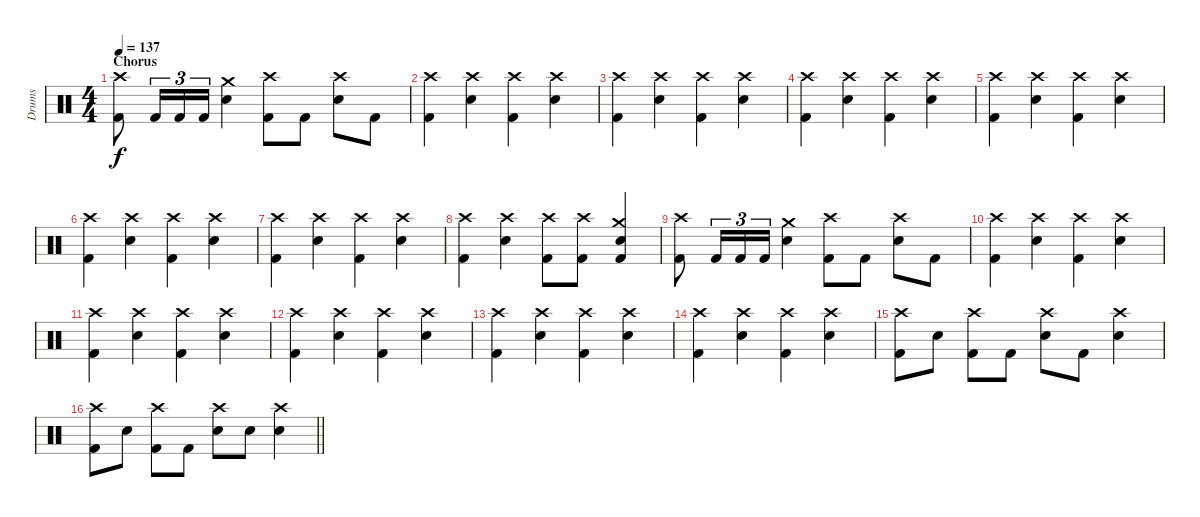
\track ("Drums" "Drums") {instrument percussion}
\staff {score}
\articulation defaults
\ts (4 4)
\section ("" "Chorus")
\tempo 137
\clef neutral
\ks c
("Crash high (hit)" "Kick (hit) 2").8{dy f} "Kick (hit) 2".16{tu (3 2)} "Kick (hit) 2".16{tu (3 2)} "Kick (hit) 2".16{tu (3 2)} ("Crash medium (hit)" "Electric Snare (hit)").4 ("Crash high (hit)" "Kick (hit) 2").8 "Kick (hit) 2".8 ("Crash high (hit)" "Electric Snare (hit)").8 "Kick (hit) 2".8 |
("Crash high (hit)" "Kick (hit) 2").4 ("Crash high (hit)" "Electric Snare (hit)").4 ("Crash high (hit)" "Kick (hit) 2").4 ("Crash high (hit)" "Electric Snare (hit)").4 |
("Crash high (hit)" "Kick (hit) 2").4 ("Crash high (hit)" "Electric Snare (hit)").4 ("Crash high (hit)" "Kick (hit) 2").4 ("Crash high (hit)" "Electric Snare (hit)").4 |
("Crash high (hit)" "Kick (hit) 2").4 ("Crash high (hit)" "Electric Snare (hit)").4 ("Crash high (hit)" "Kick (hit) 2").4 ("Crash high (hit)" "Electric Snare (hit)").4 |
("Crash high (hit)" "Kick (hit) 2").4 ("Crash high (hit)" "Electric Snare (hit)").4 ("Crash high (hit)" "Kick (hit) 2").4 ("Crash high (hit)" "Electric Snare (hit)").4 |
("Crash high (hit)" "Kick (hit) 2").4 ("Crash high (hit)" "Electric Snare (hit)").4 ("Crash high (hit)" "Kick (hit) 2").4 ("Crash high (hit)" "Electric Snare (hit)").4 |
("Crash high (hit)" "Kick (hit) 2").4 ("Crash high (hit)" "Electric Snare (hit)").4 ("Crash high (hit)" "Kick (hit) 2").4 ("Crash high (hit)" "Electric Snare (hit)").4 |
("Crash high (hit)" "Kick (hit) 2").4 ("Crash high (hit)" "Electric Snare (hit)").4 ("Crash high (hit)" "Kick (hit) 2").8 ("Crash high (hit)" "Kick (hit) 2").8 ("Crash medium (hit)" "Kick (hit) 2" "Electric Snare (hit)").4 |
("Crash high (hit)" "Kick (hit) 2").8 "Kick (hit) 2".16{tu (3 2)} "Kick (hit) 2".16{tu (3 2)} "Kick (hit) 2".16{tu (3 2)} ("Crash medium (hit)" "Electric Snare (hit)").4 ("Crash high (hit)" "Kick (hit) 2").8 "Kick (hit) 2".8 ("Crash high (hit)" "Electric Snare (hit)").8 "Kick (hit) 2".8 |
("Crash high (hit)" "Kick (hit) 2").4 ("Crash high (hit)" "Electric Snare (hit)").4 ("Crash high (hit)" "Kick (hit) 2").4 ("Crash high (hit)" "Electric Snare (hit)").4 |
("Crash high (hit)" "Kick (hit) 2").4 ("Crash high (hit)" "Electric Snare (hit)").4 ("Crash high (hit)" "Kick (hit) 2").4 ("Crash high (hit)" "Electric Snare (hit)").4 |
("Crash high (hit)" "Kick (hit) 2").4 ("Crash high (hit)" "Electric Snare (hit)").4 ("Crash high (hit)" "Kick (hit) 2").4 ("Crash high (hit)" "Electric Snare (hit)").4 |
("Crash high (hit)" "Kick (hit) 2").4 ("Crash high (hit)" "Electric Snare (hit)").4 ("Crash high (hit)" "Kick (hit) 2").4 ("Crash high (hit)" "Electric Snare (hit)").4 |
("Crash high (hit)" "Kick (hit) 2").4 ("Crash high (hit)" "Electric Snare (hit)").4 ("Crash high (hit)" "Kick (hit) 2").4 ("Crash high (hit)" "Electric Snare (hit)").4 |
("Crash high (hit)" "Kick (hit) 2").8 "Electric Snare (hit)".8 ("Crash high (hit)" "Kick (hit) 2").8 "Kick (hit) 2".8 ("Crash high (hit)" "Electric Snare (hit)").8 "Kick (hit) 2".8 ("Crash high (hit)" "Electric Snare (hit)").4 |
\barLineRight lightlight
("Crash high (hit)" "Kick (hit) 2").8 "Electric Snare (hit)".8 ("Crash high (hit)" "Kick (hit) 2").8 "Kick (hit) 2".8 ("Crash high (hit)" "Electric Snare (hit)").8 "Electric Snare (hit)".8 ("Crash high (hit)" "Electric Snare (hit)").4
